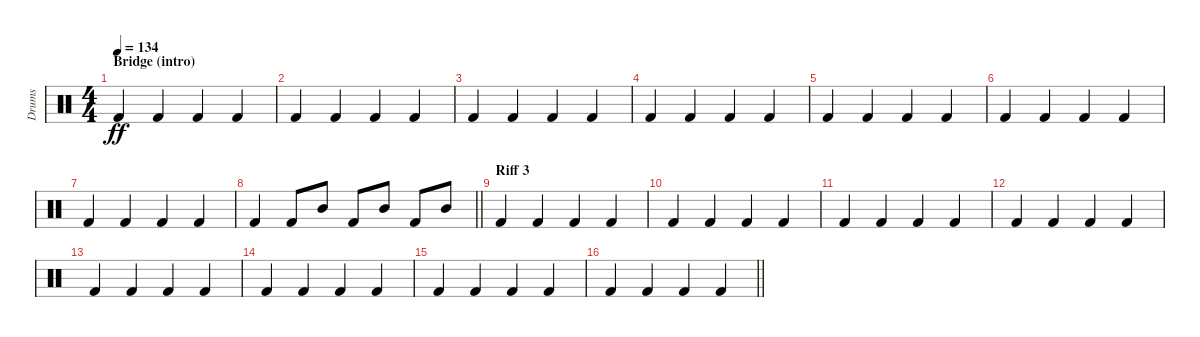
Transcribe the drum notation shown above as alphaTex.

\track ("Drums" "Drums") {instrument percussion}
\staff {score}
\articulation defaults
\ts (4 4)
\section ("" "Bridge (intro)")
\tempo 134
\clef neutral
\ks c "Kick (hit) 2".4{dy ff} "Kick (hit) 2".4 "Kick (hit) 2".4 "Kick (hit) 2".4
|
"Kick (hit) 2".4 "Kick (hit) 2".4 "Kick (hit) 2".4 "Kick (hit) 2".4 |
"Kick (hit) 2".4 "Kick (hit) 2".4 "Kick (hit) 2".4 "Kick (hit) 2".4 |
"Kick (hit) 2".4 "Kick (hit) 2".4 "Kick (hit) 2".4 "Kick (hit) 2".4 |
"Kick (hit) 2".4 "Kick (hit) 2".4 "Kick (hit) 2".4 "Kick (hit) 2".4 |
"Kick (hit) 2".4 "Kick (hit) 2".4 "Kick (hit) 2".4 "Kick (hit) 2".4 |
"Kick (hit) 2".4 "Kick (hit) 2".4 "Kick (hit) 2".4 "Kick (hit) 2".4 |
\barLineRight lightlight "Kick (hit) 2".4 "Kick (hit) 2".8 "Mid Tom (hit)".8 "Kick (hit) 2".8 "Mid Tom (hit)".8 "Kick (hit) 2".8 "Mid Tom (hit)".8
|
\section ("" "Riff 3")
"Kick (hit) 2".4 "Kick (hit) 2".4 "Kick (hit) 2".4 "Kick (hit) 2".4 |
"Kick (hit) 2".4 "Kick (hit) 2".4 "Kick (hit) 2".4 "Kick (hit) 2".4 |
"Kick (hit) 2".4 "Kick (hit) 2".4 "Kick (hit) 2".4 "Kick (hit) 2".4 |
"Kick (hit) 2".4 "Kick (hit) 2".4 "Kick (hit) 2".4 "Kick (hit) 2".4 |
"Kick (hit) 2".4 "Kick (hit) 2".4 "Kick (hit) 2".4 "Kick (hit) 2".4 |
"Kick (hit) 2".4 "Kick (hit) 2".4 "Kick (hit) 2".4 "Kick (hit) 2".4 |
"Kick (hit) 2".4 "Kick (hit) 2".4 "Kick (hit) 2".4 "Kick (hit) 2".4 |
\barLineRight lightlight "Kick (hit) 2".4 "Kick (hit) 2".4 "Kick (hit) 2".4 "Kick (hit) 2".4
